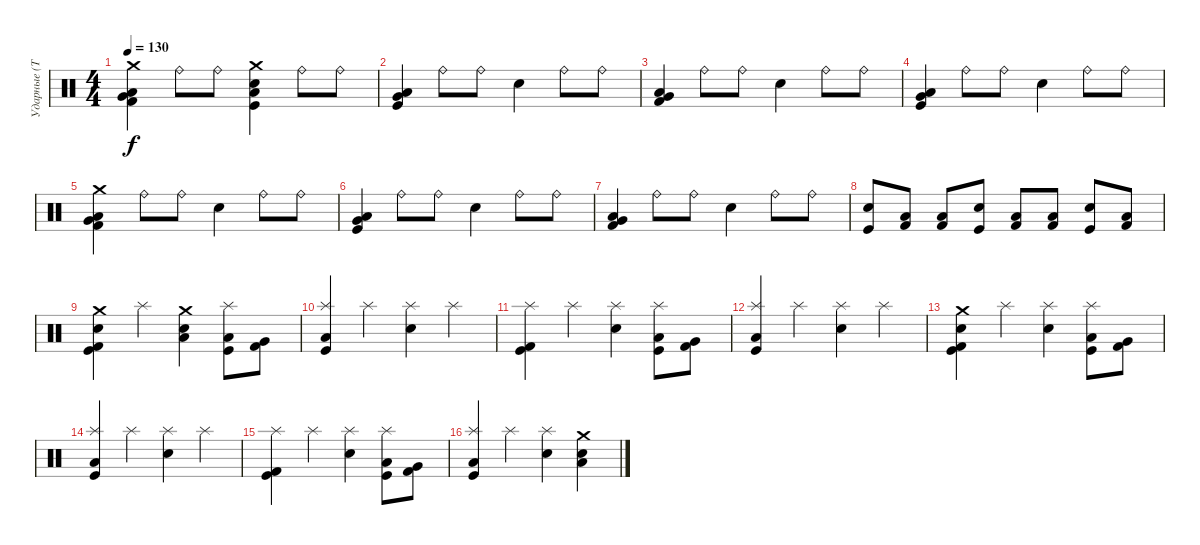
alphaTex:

\track ("Ударные (Тьодальв)" "Ударные (Т") {instrument percussion}
\staff {score}
\articulation defaults
\ts (4 4)
\tempo 130
\clef neutral
\ks c
("Crash medium (hit)" "Low Floor Tom (hit)" "Very Low Tom (hit)" "Kick (hit) 2").4{dy f} "Ride (bell)".8 "Ride (bell)".8 ("Crash medium (hit)" "Snare (hit) 2" "Low Floor Tom (hit)" "Kick (hit)").4 "Ride (bell)".8 "Ride (bell)".8 |
("Low Floor Tom (hit)" "Very Low Tom (hit)" "Kick (hit)").4 "Ride (bell)".8 "Ride (bell)".8 "Snare (hit) 2".4 "Ride (bell)".8 "Ride (bell)".8 |
("Low Floor Tom (hit)" "Very Low Tom (hit)" "Kick (hit) 2").4 "Ride (bell)".8 "Ride (bell)".8 "Snare (hit) 2".4 "Ride (bell)".8 "Ride (bell)".8 |
("Low Floor Tom (hit)" "Very Low Tom (hit)" "Kick (hit)").4 "Ride (bell)".8 "Ride (bell)".8 "Snare (hit) 2".4 "Ride (bell)".8 "Ride (bell)".8 |
("Crash medium (hit)" "Low Floor Tom (hit)" "Very Low Tom (hit)" "Kick (hit) 2").4 "Ride (bell)".8 "Ride (bell)".8 "Snare (hit) 2".4 "Ride (bell)".8 "Ride (bell)".8 |
("Low Floor Tom (hit)" "Very Low Tom (hit)" "Kick (hit)").4 "Ride (bell)".8 "Ride (bell)".8 "Snare (hit) 2".4 "Ride (bell)".8 "Ride (bell)".8 |
("Low Floor Tom (hit)" "Very Low Tom (hit)" "Kick (hit) 2").4 "Ride (bell)".8 "Ride (bell)".8 "Snare (hit) 2".4 "Ride (bell)".8 "Ride (bell)".8 |
("Snare (hit) 2" "Kick (hit)").8 ("Low Floor Tom (hit)" "Kick (hit) 2").8 ("Low Floor Tom (hit)" "Kick (hit) 2").8 ("Snare (hit) 2" "Kick (hit)").8 ("Low Floor Tom (hit)" "Kick (hit) 2").8 ("Low Floor Tom (hit)" "Kick (hit) 2").8 ("Snare (hit) 2" "Kick (hit)").8 ("Low Floor Tom (hit)" "Kick (hit) 2").8 |
("Crash medium (hit)" "Snare (hit) 2" "Kick (hit)" "Kick (hit) 2").4 "Splash (hit)".4 ("Crash medium (hit)" "Snare (hit) 2" "Low Floor Tom (hit)").4 ("Splash (hit)" "Kick (hit)" "Low Floor Tom (hit)").8 ("Kick (hit) 2" "Very Low Tom (hit)").8 |
("Splash (hit)" "Low Tom (hit)" "Kick (hit)").4 "Splash (hit)".4 ("Splash (hit)" "Snare (hit) 2").4 "Splash (hit)".4 |
("Splash (hit)" "Kick (hit)" "Kick (hit) 2").4 "Splash (hit)".4 ("Splash (hit)" "Snare (hit) 2").4 ("Splash (hit)" "Kick (hit)" "Low Floor Tom (hit)").8 ("Kick (hit) 2" "Very Low Tom (hit)").8 |
("Splash (hit)" "Kick (hit)" "Low Tom (hit)").4 "Splash (hit)".4 ("Splash (hit)" "Snare (hit) 2").4 "Splash (hit)".4 |
("Crash medium (hit)" "Snare (hit) 2" "Kick (hit)" "Kick (hit) 2").4 "Splash (hit)".4 ("Splash (hit)" "Snare (hit) 2").4 ("Splash (hit)" "Kick (hit)" "Low Floor Tom (hit)").8 ("Kick (hit) 2" "Very Low Tom (hit)").8 |
("Splash (hit)" "Low Tom (hit)" "Kick (hit)").4 "Splash (hit)".4 ("Splash (hit)" "Snare (hit) 2").4 "Splash (hit)".4 |
("Splash (hit)" "Kick (hit)" "Kick (hit) 2").4 "Splash (hit)".4 ("Splash (hit)" "Snare (hit) 2").4 ("Splash (hit)" "Kick (hit)" "Low Floor Tom (hit)").8 ("Kick (hit) 2" "Very Low Tom (hit)").8 |
("Splash (hit)" "Low Tom (hit)" "Kick (hit)").4 "Splash (hit)".4 ("Splash (hit)" "Snare (hit) 2").4 ("Snare (hit) 2" "Crash medium (hit)" "Low Floor Tom (hit)").4
